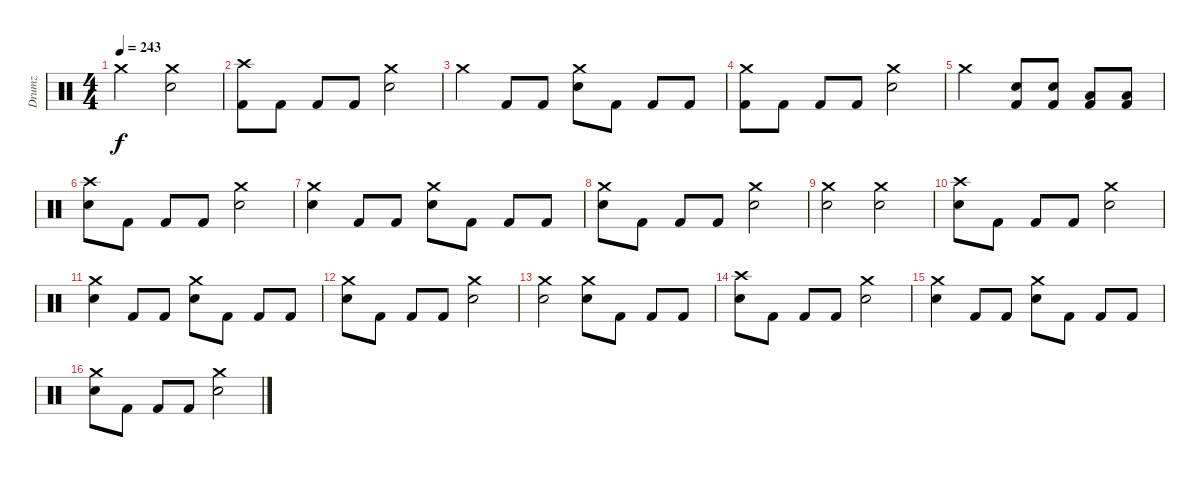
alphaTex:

\track ("Drumz" "Drumz") {instrument percussion}
\staff {score}
\articulation defaults
\ts (4 4)
\tempo 243
\clef neutral
\ks c "Crash medium (hit)".2{dy f}
("Crash medium (hit)" "Electric Snare (hit)").2 |
("Crash high (hit)" "Kick (hit) 2").8 "Kick (hit) 2".8 "Kick (hit) 2".8 "Kick (hit) 2".8 ("Crash medium (hit)" "Electric Snare (hit)").2 |
"Crash medium (hit)".4 "Kick (hit) 2".8 "Kick (hit) 2".8 ("Crash medium (hit)" "Electric Snare (hit)").8 "Kick (hit) 2".8 "Kick (hit) 2".8 "Kick (hit) 2".8 |
("Crash medium (hit)" "Kick (hit) 2").8 "Kick (hit) 2".8 "Kick (hit) 2".8 "Kick (hit) 2".8 ("Crash medium (hit)" "Electric Snare (hit)").2 |
"Crash medium (hit)".2 ("Electric Snare (hit)" "Kick (hit) 2").8 ("Electric Snare (hit)" "Kick (hit) 2").8 ("Low Tom (hit)" "Kick (hit) 2").8 ("Low Tom (hit)" "Kick (hit) 2").8 |
("Crash high (hit)" "Electric Snare (hit)").8{volume 16} "Kick (hit) 2".8 "Kick (hit) 2".8 "Kick (hit) 2".8 ("Crash medium (hit)" "Electric Snare (hit)").2 |
("Crash medium (hit)" "Electric Snare (hit)").4 "Kick (hit) 2".8 "Kick (hit) 2".8 ("Crash medium (hit)" "Electric Snare (hit)").8 "Kick (hit) 2".8 "Kick (hit) 2".8 "Kick (hit) 2".8 |
("Crash medium (hit)" "Electric Snare (hit)").8 "Kick (hit) 2".8 "Kick (hit) 2".8 "Kick (hit) 2".8 ("Crash medium (hit)" "Electric Snare (hit)").2 |
("Crash medium (hit)" "Electric Snare (hit)").2 ("Crash medium (hit)" "Electric Snare (hit)").2 |
("Crash high (hit)" "Electric Snare (hit)").8 "Kick (hit) 2".8 "Kick (hit) 2".8 "Kick (hit) 2".8 ("Crash medium (hit)" "Electric Snare (hit)").2 |
("Crash medium (hit)" "Electric Snare (hit)").4 "Kick (hit) 2".8 "Kick (hit) 2".8 ("Crash medium (hit)" "Electric Snare (hit)").8 "Kick (hit) 2".8 "Kick (hit) 2".8 "Kick (hit) 2".8 |
("Crash medium (hit)" "Electric Snare (hit)").8 "Kick (hit) 2".8 "Kick (hit) 2".8 "Kick (hit) 2".8 ("Crash medium (hit)" "Electric Snare (hit)").2 |
("Crash medium (hit)" "Electric Snare (hit)").2 ("Crash medium (hit)" "Electric Snare (hit)").8 "Kick (hit) 2".8 "Kick (hit) 2".8 "Kick (hit) 2".8 |
("Crash high (hit)" "Electric Snare (hit)").8 "Kick (hit) 2".8 "Kick (hit) 2".8 "Kick (hit) 2".8 ("Crash medium (hit)" "Electric Snare (hit)").2 |
("Crash medium (hit)" "Electric Snare (hit)").4 "Kick (hit) 2".8 "Kick (hit) 2".8 ("Crash medium (hit)" "Electric Snare (hit)").8 "Kick (hit) 2".8 "Kick (hit) 2".8 "Kick (hit) 2".8 |
("Crash medium (hit)" "Electric Snare (hit)").8 "Kick (hit) 2".8 "Kick (hit) 2".8 "Kick (hit) 2".8 ("Crash medium (hit)" "Electric Snare (hit)").2
